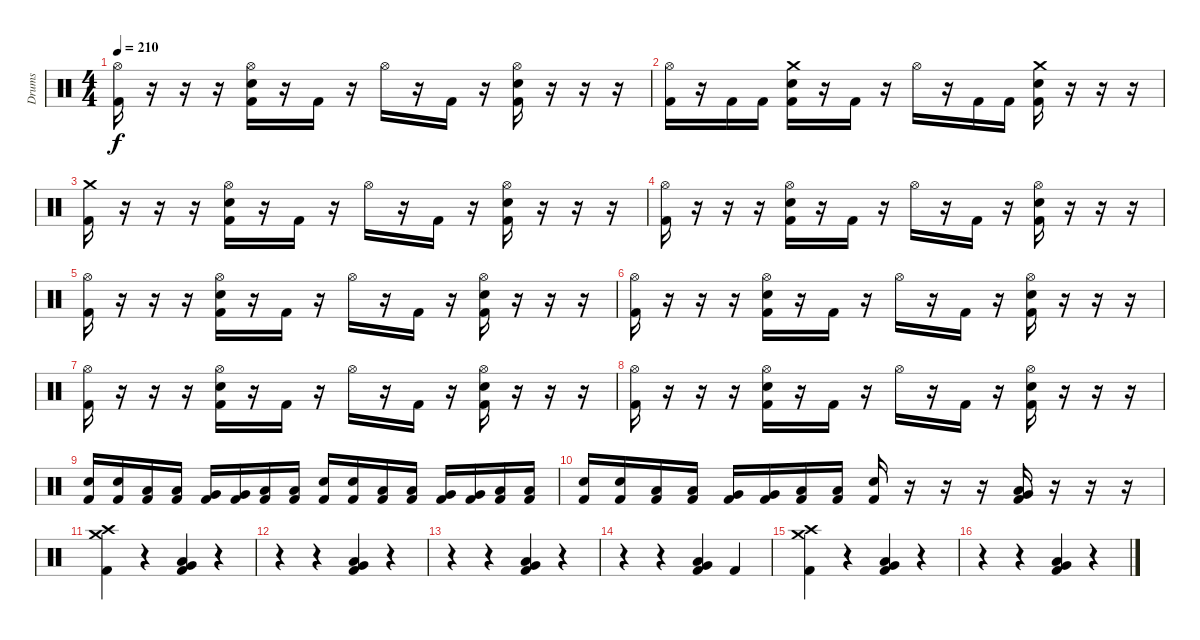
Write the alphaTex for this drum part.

\track ("Drums" "Drums") {instrument percussion}
\staff {score}
\articulation defaults
\ts (4 4)
\tempo 210
\clef neutral
\ks c
("Hi-Hat (open)" "Kick (hit) 2").16{dy f} r.16 r.16 r.16 ("Hi-Hat (open)" "Electric Snare (hit)" "Kick (hit) 2").16 r.16 "Kick (hit) 2".16 r.16 "Hi-Hat (open)".16 r.16 "Kick (hit) 2".16 r.16 ("Hi-Hat (open)" "Electric Snare (hit)" "Kick (hit) 2").16 r.16 r.16 r.16 |
("Hi-Hat (open)" "Kick (hit) 2").16 r.16 "Kick (hit) 2".16 "Kick (hit) 2".16 ("Crash medium (hit)" "Electric Snare (hit)" "Kick (hit) 2").16 r.16 "Kick (hit) 2".16 r.16 "Hi-Hat (open)".16 r.16 "Kick (hit) 2".16 "Kick (hit) 2".16 ("Crash medium (hit)" "Electric Snare (hit)" "Kick (hit) 2").16 r.16 r.16 r.16 |
("Crash medium (hit)" "Kick (hit) 2").16 r.16 r.16 r.16 ("Hi-Hat (open)" "Electric Snare (hit)" "Kick (hit) 2").16 r.16 "Kick (hit) 2".16 r.16 "Hi-Hat (open)".16 r.16 "Kick (hit) 2".16 r.16 ("Hi-Hat (open)" "Electric Snare (hit)" "Kick (hit) 2").16 r.16 r.16 r.16 |
("Hi-Hat (open)" "Kick (hit) 2").16 r.16 r.16 r.16 ("Hi-Hat (open)" "Electric Snare (hit)" "Kick (hit) 2").16 r.16 "Kick (hit) 2".16 r.16 "Hi-Hat (open)".16 r.16 "Kick (hit) 2".16 r.16 ("Hi-Hat (open)" "Electric Snare (hit)" "Kick (hit) 2").16 r.16 r.16 r.16 |
("Hi-Hat (open)" "Kick (hit) 2").16 r.16 r.16 r.16 ("Hi-Hat (open)" "Electric Snare (hit)" "Kick (hit) 2").16 r.16 "Kick (hit) 2".16 r.16 "Hi-Hat (open)".16 r.16 "Kick (hit) 2".16 r.16 ("Hi-Hat (open)" "Electric Snare (hit)" "Kick (hit) 2").16 r.16 r.16 r.16 |
("Hi-Hat (open)" "Kick (hit) 2").16 r.16 r.16 r.16 ("Hi-Hat (open)" "Electric Snare (hit)" "Kick (hit) 2").16 r.16 "Kick (hit) 2".16 r.16 "Hi-Hat (open)".16 r.16 "Kick (hit) 2".16 r.16 ("Hi-Hat (open)" "Electric Snare (hit)" "Kick (hit) 2").16 r.16 r.16 r.16 |
("Hi-Hat (open)" "Kick (hit) 2").16 r.16 r.16 r.16 ("Hi-Hat (open)" "Electric Snare (hit)" "Kick (hit) 2").16 r.16 "Kick (hit) 2".16 r.16 "Hi-Hat (open)".16 r.16 "Kick (hit) 2".16 r.16 ("Hi-Hat (open)" "Electric Snare (hit)" "Kick (hit) 2").16 r.16 r.16 r.16 |
("Hi-Hat (open)" "Kick (hit) 2").16 r.16 r.16 r.16 ("Hi-Hat (open)" "Electric Snare (hit)" "Kick (hit) 2").16 r.16 "Kick (hit) 2".16 r.16 "Hi-Hat (open)".16 r.16 "Kick (hit) 2".16 r.16 ("Hi-Hat (open)" "Electric Snare (hit)" "Kick (hit) 2").16 r.16 r.16 r.16 |
("Electric Snare (hit)" "Kick (hit) 2").16 ("Electric Snare (hit)" "Kick (hit) 2").16 ("Low Tom (hit)" "Kick (hit) 2").16 ("Low Tom (hit)" "Kick (hit) 2").16 ("Very Low Tom (hit)" "Kick (hit) 2").16 ("Very Low Tom (hit)" "Kick (hit) 2").16 ("Low Floor Tom (hit)" "Kick (hit) 2").16 ("Low Floor Tom (hit)" "Kick (hit) 2").16 ("Electric Snare (hit)" "Kick (hit) 2").16 ("Electric Snare (hit)" "Kick (hit) 2").16 ("Low Tom (hit)" "Kick (hit) 2").16 ("Low Tom (hit)" "Kick (hit) 2").16 ("Very Low Tom (hit)" "Kick (hit) 2").16 ("Very Low Tom (hit)" "Kick (hit) 2").16 ("Low Floor Tom (hit)" "Kick (hit) 2").16 ("Low Floor Tom (hit)" "Kick (hit) 2").16 |
("Electric Snare (hit)" "Kick (hit) 2").16 ("Electric Snare (hit)" "Kick (hit) 2").16 ("Low Tom (hit)" "Kick (hit) 2").16 ("Low Tom (hit)" "Kick (hit) 2").16 ("Very Low Tom (hit)" "Kick (hit) 2").16 ("Very Low Tom (hit)" "Kick (hit) 2").16 ("Low Floor Tom (hit)" "Kick (hit) 2").16 ("Low Floor Tom (hit)" "Kick (hit) 2").16 ("Electric Snare (hit)" "Kick (hit) 2").16 r.16 r.16 r.16 ("Low Floor Tom (hit)" "Very Low Tom (hit)" "Kick (hit) 2").16 r.16 r.16 r.16 |
("Crash medium (hit)" "Crash high (hit)" "Kick (hit) 2").4 r.4 ("Low Tom (hit)" "Very Low Tom (hit)" "Kick (hit) 2").4 r.4 |
r.4 r.4 ("Low Tom (hit)" "Very Low Tom (hit)" "Kick (hit) 2").4 r.4 |
r.4 r.4 ("Low Tom (hit)" "Very Low Tom (hit)" "Kick (hit) 2").4 r.4 |
r.4 r.4 ("Low Tom (hit)" "Very Low Tom (hit)" "Kick (hit) 2").4 "Kick (hit) 2".4 |
("Crash medium (hit)" "Crash high (hit)" "Kick (hit) 2").4 r.4 ("Low Tom (hit)" "Very Low Tom (hit)" "Kick (hit) 2").4 r.4 |
r.4 r.4 ("Low Tom (hit)" "Very Low Tom (hit)" "Kick (hit) 2").4 r.4
